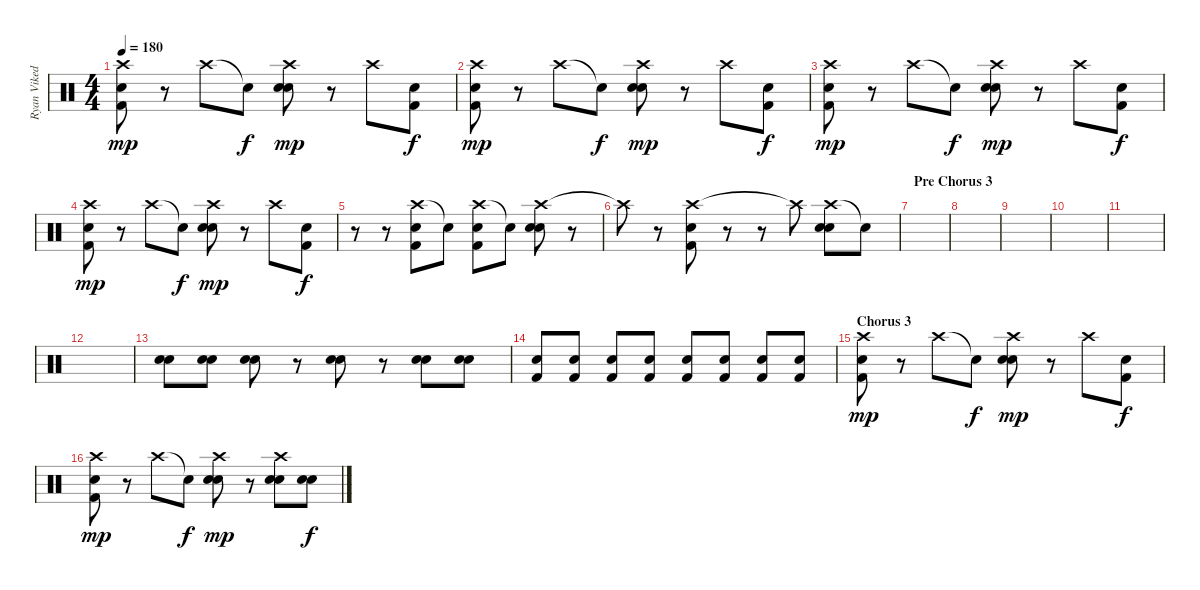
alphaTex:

\track ("Ryan Vikedal(drums)" "Ryan Viked") {instrument percussion}
\staff {score}
\articulation defaults
\ts (4 4)
\tempo 180
\clef neutral
\ks c
("Crash high (hit)" "Electric Snare (hit)" "Kick (hit) 2").8{dy mp} r.8 "Crash high (hit)".8 "Snare (hit)"{t}.8{dy f} ("Crash high (hit)" "Electric Snare (hit)" "Electric Snare (hit)").8{dy mp} r.8 "Crash high (hit)".8 ("Kick (hit) 2" "Electric Snare (hit)").8{dy f} |
("Crash high (hit)" "Electric Snare (hit)" "Kick (hit) 2").8{dy mp} r.8 "Crash high (hit)".8 "Snare (hit)"{t}.8{dy f} ("Crash high (hit)" "Electric Snare (hit)" "Electric Snare (hit)").8{dy mp} r.8 "Crash high (hit)".8 ("Kick (hit) 2" "Electric Snare (hit)").8{dy f} |
("Crash high (hit)" "Electric Snare (hit)" "Kick (hit) 2").8{dy mp} r.8 "Crash high (hit)".8 "Snare (hit)"{t}.8{dy f} ("Crash high (hit)" "Electric Snare (hit)" "Electric Snare (hit)").8{dy mp} r.8 "Crash high (hit)".8 ("Kick (hit) 2" "Electric Snare (hit)").8{dy f} |
("Crash high (hit)" "Electric Snare (hit)" "Kick (hit) 2").8{dy mp} r.8 "Crash high (hit)".8 "Snare (hit)"{t}.8{dy f} ("Crash high (hit)" "Electric Snare (hit)" "Electric Snare (hit)").8{dy mp} r.8 "Crash high (hit)".8 ("Kick (hit) 2" "Electric Snare (hit)").8{dy f} |
r.8 r.8 ("Crash high (hit)" "Electric Snare (hit)" "Kick (hit) 2").8 "Snare (hit)"{t}.8 ("Crash high (hit)" "Electric Snare (hit)" "Kick (hit) 2").8 "Snare (hit)"{t}.8 ("Crash high (hit)" "Electric Snare (hit)" "Electric Snare (hit)").8 r.8 |
"Crash high (hit)"{t}.8 r.8 ("Crash high (hit)" "Electric Snare (hit)" "Kick (hit) 2").8 r.8 r.8 "Crash high (hit)"{t}.8 ("Crash high (hit)" "Electric Snare (hit)" "Electric Snare (hit)").8 "Snare (hit)"{t}.8 |
\section ("" "Pre Chorus 3")
|
|
|
|
|
|
("Snare (hit) 2" "Electric Snare (hit)").8 ("Snare (hit) 2" "Electric Snare (hit)").8 ("Electric Snare (hit)" "Electric Snare (hit)").8 r.8 ("Electric Snare (hit)" "Snare (hit) 2").8 r.8 ("Electric Snare (hit)" "Electric Snare (hit)").8 ("Electric Snare (hit)" "Electric Snare (hit)").8 |
("Kick (hit) 2" "Electric Snare (hit)").8 ("Kick (hit) 2" "Electric Snare (hit)").8 ("Kick (hit) 2" "Electric Snare (hit)").8 ("Kick (hit) 2" "Electric Snare (hit)").8 ("Kick (hit) 2" "Electric Snare (hit)").8 ("Kick (hit) 2" "Electric Snare (hit)").8 ("Kick (hit) 2" "Electric Snare (hit)").8 ("Kick (hit) 2" "Electric Snare (hit)").8 |
\section ("" "Chorus 3")
("Crash high (hit)" "Electric Snare (hit)" "Kick (hit) 2").8{dy mp} r.8 "Crash high (hit)".8 "Snare (hit)"{t}.8{dy f} ("Crash high (hit)" "Electric Snare (hit)" "Electric Snare (hit)").8{dy mp} r.8 "Crash high (hit)".8 ("Kick (hit) 2" "Electric Snare (hit)").8{dy f} |
("Crash high (hit)" "Electric Snare (hit)" "Kick (hit) 2").8{dy mp} r.8 "Crash high (hit)".8 "Snare (hit)"{t}.8{dy f} ("Crash high (hit)" "Electric Snare (hit)" "Electric Snare (hit)").8{dy mp} r.8 ("Crash high (hit)" "Electric Snare (hit)" "Electric Snare (hit)").8 ("Electric Snare (hit)" "Electric Snare (hit)").8{dy f}
